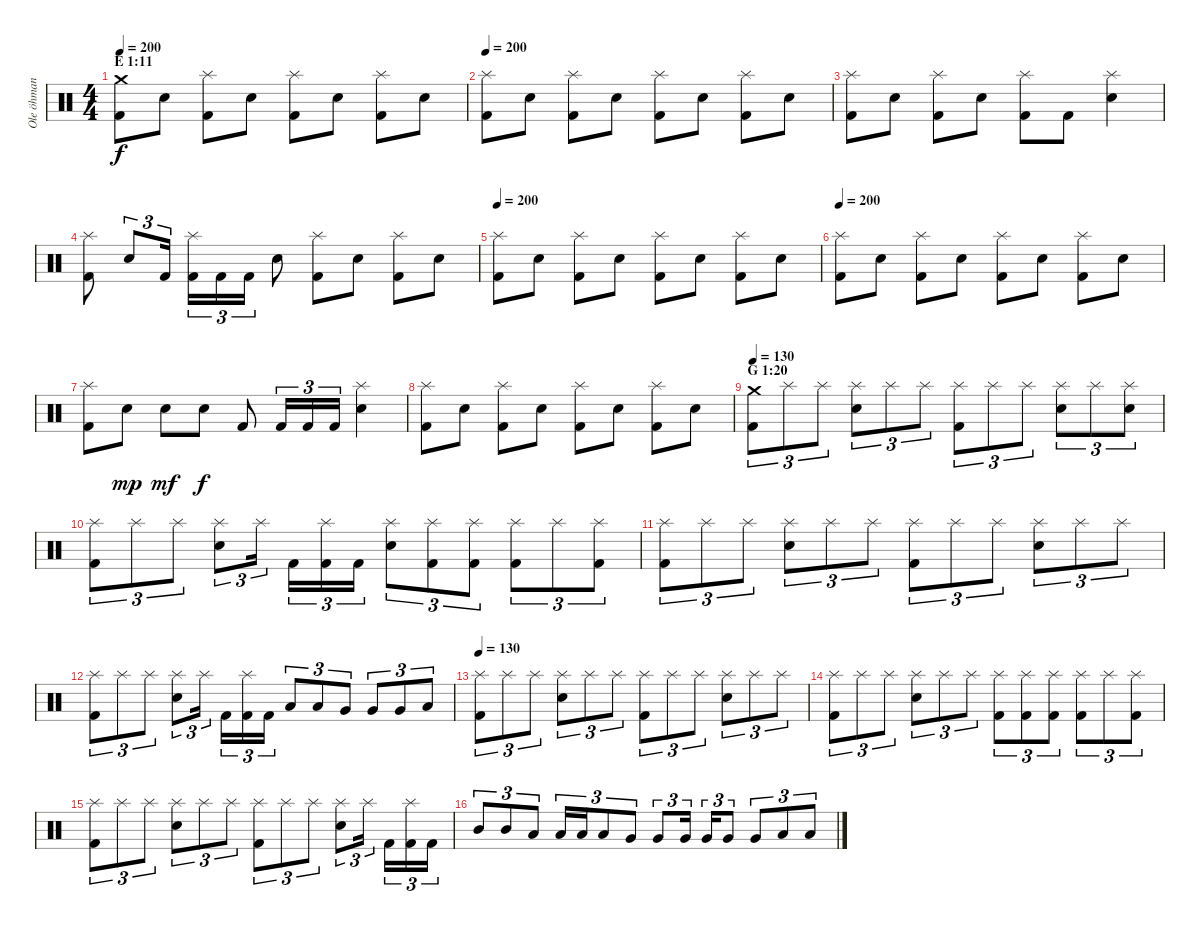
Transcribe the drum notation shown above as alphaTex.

\track ("Ole öhman" "Ole öhman") {instrument percussion}
\staff {score}
\articulation defaults
\ts (4 4)
\section ("" "E 1:11")
\tempo 200
\clef neutral
\ks c
("Crash medium (hit)" "Kick (hit) 2").8{dy f} "Electric Snare (hit)".8 ("Splash (hit)" "Kick (hit) 2").8 "Electric Snare (hit)".8 ("Splash (hit)" "Kick (hit) 2").8 "Electric Snare (hit)".8 ("Splash (hit)" "Kick (hit) 2").8 "Electric Snare (hit)".8 |
\tempo 200
("Splash (hit)" "Kick (hit) 2").8 "Electric Snare (hit)".8 ("Splash (hit)" "Kick (hit) 2").8 "Electric Snare (hit)".8 ("Splash (hit)" "Kick (hit) 2").8 "Electric Snare (hit)".8 ("Splash (hit)" "Kick (hit) 2").8 "Electric Snare (hit)".8 |
("Splash (hit)" "Kick (hit) 2").8 "Electric Snare (hit)".8 ("Splash (hit)" "Kick (hit) 2").8 "Electric Snare (hit)".8 ("Splash (hit)" "Kick (hit) 2").8 "Kick (hit) 2".8 ("Splash (hit)" "Electric Snare (hit)").4 |
("Splash (hit)" "Kick (hit) 2").8 "Electric Snare (hit)".8{tu (3 2)} "Kick (hit) 2".16{tu (3 2)} ("Splash (hit)" "Kick (hit) 2").16{tu (3 2)} "Kick (hit) 2".16{tu (3 2)} "Kick (hit) 2".16{tu (3 2)} "Electric Snare (hit)".8 ("Splash (hit)" "Kick (hit) 2").8 "Electric Snare (hit)".8 ("Splash (hit)" "Kick (hit) 2").8 "Electric Snare (hit)".8 |
\tempo 200
("Splash (hit)" "Kick (hit) 2").8 "Electric Snare (hit)".8 ("Splash (hit)" "Kick (hit) 2").8 "Electric Snare (hit)".8 ("Splash (hit)" "Kick (hit) 2").8 "Electric Snare (hit)".8 ("Splash (hit)" "Kick (hit) 2").8 "Electric Snare (hit)".8 |
\tempo 200
("Splash (hit)" "Kick (hit) 2").8 "Electric Snare (hit)".8 ("Splash (hit)" "Kick (hit) 2").8 "Electric Snare (hit)".8 ("Splash (hit)" "Kick (hit) 2").8 "Electric Snare (hit)".8 ("Splash (hit)" "Kick (hit) 2").8 "Electric Snare (hit)".8 |
("Splash (hit)" "Kick (hit) 2").8 "Electric Snare (hit)".8{dy mp} "Electric Snare (hit)".8{dy mf} "Electric Snare (hit)".8{dy f} "Kick (hit) 2".8 "Kick (hit) 2".16{tu (3 2)} "Kick (hit) 2".16{tu (3 2)} "Kick (hit) 2".16{tu (3 2)} ("Splash (hit)" "Electric Snare (hit)").4 |
("Splash (hit)" "Kick (hit) 2").8 "Electric Snare (hit)".8 ("Splash (hit)" "Kick (hit) 2").8 "Electric Snare (hit)".8 ("Splash (hit)" "Kick (hit) 2").8 "Electric Snare (hit)".8 ("Splash (hit)" "Kick (hit) 2").8 "Electric Snare (hit)".8 |
\section ("" "G 1:20")
\tempo 130
("Crash medium (hit)" "Kick (hit) 2").8{tu (3 2)} "Splash (hit)".8{tu (3 2)} "Splash (hit)".8{tu (3 2)} ("Splash (hit)" "Electric Snare (hit)").8{tu (3 2)} "Splash (hit)".8{tu (3 2)} "Splash (hit)".8{tu (3 2)} ("Splash (hit)" "Kick (hit) 2").8{tu (3 2)} "Splash (hit)".8{tu (3 2)} "Splash (hit)".8{tu (3 2)} ("Splash (hit)" "Electric Snare (hit)").8{tu (3 2)} "Splash (hit)".8{tu (3 2)} ("Splash (hit)" "Electric Snare (hit)").8{tu (3 2)} |
("Splash (hit)" "Kick (hit) 2").8{tu (3 2)} "Splash (hit)".8{tu (3 2)} "Splash (hit)".8{tu (3 2)} ("Splash (hit)" "Electric Snare (hit)").8{tu (3 2)} "Splash (hit)".16{tu (3 2)} "Kick (hit) 2".16{tu (3 2)} ("Splash (hit)" "Kick (hit) 2").16{tu (3 2)} "Kick (hit) 2".16{tu (3 2)} ("Splash (hit)" "Electric Snare (hit)").8{tu (3 2)} ("Splash (hit)" "Kick (hit) 2").8{tu (3 2)} ("Splash (hit)" "Kick (hit) 2").8{tu (3 2)} ("Splash (hit)" "Kick (hit) 2").8{tu (3 2)} "Splash (hit)".8{tu (3 2)} ("Splash (hit)" "Kick (hit) 2").8{tu (3 2)} |
("Splash (hit)" "Kick (hit) 2").8{tu (3 2)} "Splash (hit)".8{tu (3 2)} "Splash (hit)".8{tu (3 2)} ("Splash (hit)" "Electric Snare (hit)").8{tu (3 2)} "Splash (hit)".8{tu (3 2)} "Splash (hit)".8{tu (3 2)} ("Splash (hit)" "Kick (hit) 2").8{tu (3 2)} "Splash (hit)".8{tu (3 2)} "Splash (hit)".8{tu (3 2)} ("Splash (hit)" "Electric Snare (hit)").8{tu (3 2)} "Splash (hit)".8{tu (3 2)} "Splash (hit)".8{tu (3 2)} |
("Splash (hit)" "Kick (hit) 2").8{tu (3 2)} "Splash (hit)".8{tu (3 2)} "Splash (hit)".8{tu (3 2)} ("Splash (hit)" "Electric Snare (hit)").8{tu (3 2)} "Splash (hit)".16{tu (3 2)} "Kick (hit) 2".16{tu (3 2)} ("Splash (hit)" "Kick (hit) 2").16{tu (3 2)} "Kick (hit) 2".16{tu (3 2)} "Low Tom (hit)".8{tu (3 2)} "Low Tom (hit)".8{tu (3 2)} "Very Low Tom (hit)".8{tu (3 2)} "Very Low Tom (hit)".8{tu (3 2)} "Very Low Tom (hit)".8{tu (3 2)} "Low Floor Tom (hit)".8{tu (3 2)} |
\tempo 130
("Splash (hit)" "Kick (hit) 2").8{tu (3 2)} "Splash (hit)".8{tu (3 2)} "Splash (hit)".8{tu (3 2)} ("Splash (hit)" "Electric Snare (hit)").8{tu (3 2)} "Splash (hit)".8{tu (3 2)} "Splash (hit)".8{tu (3 2)} ("Splash (hit)" "Kick (hit) 2").8{tu (3 2)} "Splash (hit)".8{tu (3 2)} "Splash (hit)".8{tu (3 2)} ("Splash (hit)" "Electric Snare (hit)").8{tu (3 2)} "Splash (hit)".8{tu (3 2)} "Splash (hit)".8{tu (3 2)} |
("Splash (hit)" "Kick (hit) 2").8{tu (3 2)} "Splash (hit)".8{tu (3 2)} "Splash (hit)".8{tu (3 2)} ("Splash (hit)" "Electric Snare (hit)").8{tu (3 2)} "Splash (hit)".8{tu (3 2)} "Splash (hit)".8{tu (3 2)} ("Splash (hit)" "Kick (hit) 2").8{tu (3 2)} ("Splash (hit)" "Kick (hit) 2").8{tu (3 2)} ("Splash (hit)" "Kick (hit) 2").8{tu (3 2)} ("Splash (hit)" "Kick (hit) 2").8{tu (3 2)} "Splash (hit)".8{tu (3 2)} ("Splash (hit)" "Kick (hit) 2").8{tu (3 2)} |
("Splash (hit)" "Kick (hit) 2").8{tu (3 2)} "Splash (hit)".8{tu (3 2)} "Splash (hit)".8{tu (3 2)} ("Splash (hit)" "Electric Snare (hit)").8{tu (3 2)} "Splash (hit)".8{tu (3 2)} "Splash (hit)".8{tu (3 2)} ("Splash (hit)" "Kick (hit) 2").8{tu (3 2)} "Splash (hit)".8{tu (3 2)} "Splash (hit)".8{tu (3 2)} ("Splash (hit)" "Electric Snare (hit)").8{tu (3 2)} "Splash (hit)".16{tu (3 2)} "Kick (hit) 2".16{tu (3 2)} ("Splash (hit)" "Kick (hit) 2").16{tu (3 2)} "Kick (hit) 2".16{tu (3 2)} |
"Mid Tom (hit)".8{tu (3 2)} "Mid Tom (hit)".8{tu (3 2)} "Low Tom (hit)".8{tu (3 2)} "Low Tom (hit)".16{tu (3 2)} "Low Tom (hit)".16{tu (3 2)} "Low Tom (hit)".8{tu (3 2)} "Very Low Tom (hit)".8{tu (3 2)} "Very Low Tom (hit)".8{tu (3 2)} "Very Low Tom (hit)".16{tu (3 2)} "Very Low Tom (hit)".16{tu (3 2)} "Very Low Tom (hit)".8{tu (3 2)} "Very Low Tom (hit)".8{tu (3 2)} "Low Floor Tom (hit)".8{tu (3 2)} "Low Floor Tom (hit)".8{tu (3 2)}
